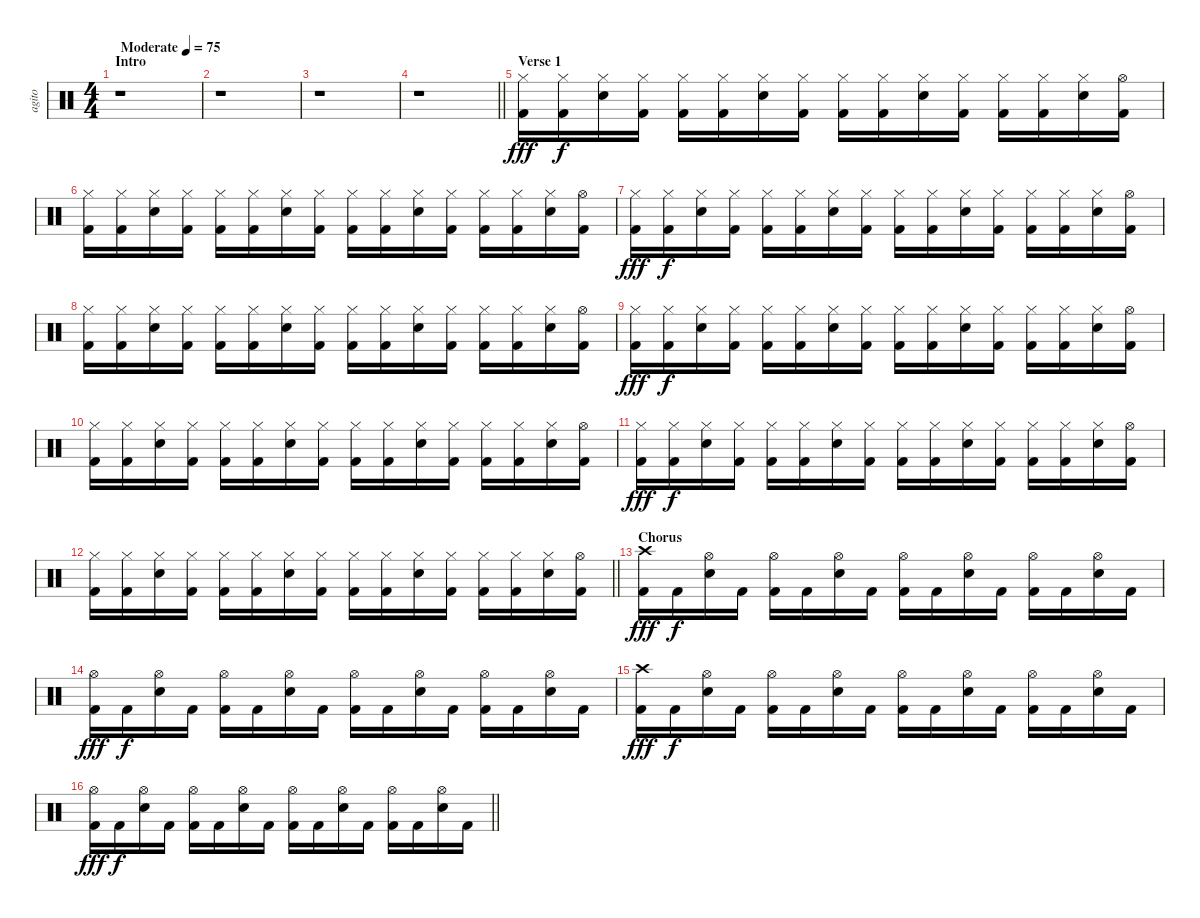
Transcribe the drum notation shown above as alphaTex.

\track ("agito" "agito") {instrument percussion}
\staff {score}
\articulation defaults
\ts (4 4)
\section ("" "Intro")
\tempo (75 "Moderate")
\clef neutral
\ks c
r.1{dy fff} |
r.1 |
r.1 |
\barLineRight lightlight
r.1 |
\section ("" "Verse 1")
("Hi-Hat (closed)" "Kick (hit) 2").16 ("Hi-Hat (closed)" "Kick (hit) 2").16{dy f} ("Hi-Hat (closed)" "Snare (hit) 2").16 ("Hi-Hat (closed)" "Kick (hit) 2").16 ("Hi-Hat (closed)" "Kick (hit) 2").16 ("Hi-Hat (closed)" "Kick (hit) 2").16 ("Hi-Hat (closed)" "Snare (hit) 2").16 ("Hi-Hat (closed)" "Kick (hit) 2").16 ("Hi-Hat (closed)" "Kick (hit) 2").16 ("Hi-Hat (closed)" "Kick (hit) 2").16 ("Hi-Hat (closed)" "Snare (hit) 2").16 ("Hi-Hat (closed)" "Kick (hit) 2").16 ("Hi-Hat (closed)" "Kick (hit) 2").16 ("Hi-Hat (closed)" "Kick (hit) 2").16 ("Hi-Hat (closed)" "Snare (hit) 2").16 ("Hi-Hat (open)" "Kick (hit) 2").16 |
("Hi-Hat (closed)" "Kick (hit) 2").16 ("Hi-Hat (closed)" "Kick (hit) 2").16 ("Hi-Hat (closed)" "Snare (hit) 2").16 ("Hi-Hat (closed)" "Kick (hit) 2").16 ("Hi-Hat (closed)" "Kick (hit) 2").16 ("Hi-Hat (closed)" "Kick (hit) 2").16 ("Hi-Hat (closed)" "Snare (hit) 2").16 ("Hi-Hat (closed)" "Kick (hit) 2").16 ("Hi-Hat (closed)" "Kick (hit) 2").16 ("Hi-Hat (closed)" "Kick (hit) 2").16 ("Hi-Hat (closed)" "Snare (hit) 2").16 ("Hi-Hat (closed)" "Kick (hit) 2").16 ("Hi-Hat (closed)" "Kick (hit) 2").16 ("Hi-Hat (closed)" "Kick (hit) 2").16 ("Hi-Hat (closed)" "Snare (hit) 2").16 ("Hi-Hat (open)" "Kick (hit) 2").16 |
("Hi-Hat (closed)" "Kick (hit) 2").16{dy fff} ("Hi-Hat (closed)" "Kick (hit) 2").16{dy f} ("Hi-Hat (closed)" "Snare (hit) 2").16 ("Hi-Hat (closed)" "Kick (hit) 2").16 ("Hi-Hat (closed)" "Kick (hit) 2").16 ("Hi-Hat (closed)" "Kick (hit) 2").16 ("Hi-Hat (closed)" "Snare (hit) 2").16 ("Hi-Hat (closed)" "Kick (hit) 2").16 ("Hi-Hat (closed)" "Kick (hit) 2").16 ("Hi-Hat (closed)" "Kick (hit) 2").16 ("Hi-Hat (closed)" "Snare (hit) 2").16 ("Hi-Hat (closed)" "Kick (hit) 2").16 ("Hi-Hat (closed)" "Kick (hit) 2").16 ("Hi-Hat (closed)" "Kick (hit) 2").16 ("Hi-Hat (closed)" "Snare (hit) 2").16 ("Hi-Hat (open)" "Kick (hit) 2").16 |
("Hi-Hat (closed)" "Kick (hit) 2").16 ("Hi-Hat (closed)" "Kick (hit) 2").16 ("Hi-Hat (closed)" "Snare (hit) 2").16 ("Hi-Hat (closed)" "Kick (hit) 2").16 ("Hi-Hat (closed)" "Kick (hit) 2").16 ("Hi-Hat (closed)" "Kick (hit) 2").16 ("Hi-Hat (closed)" "Snare (hit) 2").16 ("Hi-Hat (closed)" "Kick (hit) 2").16 ("Hi-Hat (closed)" "Kick (hit) 2").16 ("Hi-Hat (closed)" "Kick (hit) 2").16 ("Hi-Hat (closed)" "Snare (hit) 2").16 ("Hi-Hat (closed)" "Kick (hit) 2").16 ("Hi-Hat (closed)" "Kick (hit) 2").16 ("Hi-Hat (closed)" "Kick (hit) 2").16 ("Hi-Hat (closed)" "Snare (hit) 2").16 ("Hi-Hat (open)" "Kick (hit) 2").16 |
("Hi-Hat (closed)" "Kick (hit) 2").16{dy fff} ("Hi-Hat (closed)" "Kick (hit) 2").16{dy f} ("Hi-Hat (closed)" "Snare (hit) 2").16 ("Hi-Hat (closed)" "Kick (hit) 2").16 ("Hi-Hat (closed)" "Kick (hit) 2").16 ("Hi-Hat (closed)" "Kick (hit) 2").16 ("Hi-Hat (closed)" "Snare (hit) 2").16 ("Hi-Hat (closed)" "Kick (hit) 2").16 ("Hi-Hat (closed)" "Kick (hit) 2").16 ("Hi-Hat (closed)" "Kick (hit) 2").16 ("Hi-Hat (closed)" "Snare (hit) 2").16 ("Hi-Hat (closed)" "Kick (hit) 2").16 ("Hi-Hat (closed)" "Kick (hit) 2").16 ("Hi-Hat (closed)" "Kick (hit) 2").16 ("Hi-Hat (closed)" "Snare (hit) 2").16 ("Hi-Hat (open)" "Kick (hit) 2").16 |
("Hi-Hat (closed)" "Kick (hit) 2").16 ("Hi-Hat (closed)" "Kick (hit) 2").16 ("Hi-Hat (closed)" "Snare (hit) 2").16 ("Hi-Hat (closed)" "Kick (hit) 2").16 ("Hi-Hat (closed)" "Kick (hit) 2").16 ("Hi-Hat (closed)" "Kick (hit) 2").16 ("Hi-Hat (closed)" "Snare (hit) 2").16 ("Hi-Hat (closed)" "Kick (hit) 2").16 ("Hi-Hat (closed)" "Kick (hit) 2").16 ("Hi-Hat (closed)" "Kick (hit) 2").16 ("Hi-Hat (closed)" "Snare (hit) 2").16 ("Hi-Hat (closed)" "Kick (hit) 2").16 ("Hi-Hat (closed)" "Kick (hit) 2").16 ("Hi-Hat (closed)" "Kick (hit) 2").16 ("Hi-Hat (closed)" "Snare (hit) 2").16 ("Hi-Hat (open)" "Kick (hit) 2").16 |
("Hi-Hat (closed)" "Kick (hit) 2").16{dy fff} ("Hi-Hat (closed)" "Kick (hit) 2").16{dy f} ("Hi-Hat (closed)" "Snare (hit) 2").16 ("Hi-Hat (closed)" "Kick (hit) 2").16 ("Hi-Hat (closed)" "Kick (hit) 2").16 ("Hi-Hat (closed)" "Kick (hit) 2").16 ("Hi-Hat (closed)" "Snare (hit) 2").16 ("Hi-Hat (closed)" "Kick (hit) 2").16 ("Hi-Hat (closed)" "Kick (hit) 2").16 ("Hi-Hat (closed)" "Kick (hit) 2").16 ("Hi-Hat (closed)" "Snare (hit) 2").16 ("Hi-Hat (closed)" "Kick (hit) 2").16 ("Hi-Hat (closed)" "Kick (hit) 2").16 ("Hi-Hat (closed)" "Kick (hit) 2").16 ("Hi-Hat (closed)" "Snare (hit) 2").16 ("Hi-Hat (open)" "Kick (hit) 2").16 |
\barLineRight lightlight
("Hi-Hat (closed)" "Kick (hit) 2").16 ("Hi-Hat (closed)" "Kick (hit) 2").16 ("Hi-Hat (closed)" "Snare (hit) 2").16 ("Hi-Hat (closed)" "Kick (hit) 2").16 ("Hi-Hat (closed)" "Kick (hit) 2").16 ("Hi-Hat (closed)" "Kick (hit) 2").16 ("Hi-Hat (closed)" "Snare (hit) 2").16 ("Hi-Hat (closed)" "Kick (hit) 2").16 ("Hi-Hat (closed)" "Kick (hit) 2").16 ("Hi-Hat (closed)" "Kick (hit) 2").16 ("Hi-Hat (closed)" "Snare (hit) 2").16 ("Hi-Hat (closed)" "Kick (hit) 2").16 ("Hi-Hat (closed)" "Kick (hit) 2").16 ("Hi-Hat (closed)" "Kick (hit) 2").16 ("Hi-Hat (closed)" "Snare (hit) 2").16 ("Hi-Hat (open)" "Kick (hit) 2").16 |
\section ("" "Chorus")
("Crash high (hit)" "Kick (hit) 2").16{dy fff} "Kick (hit) 2".16{dy f} ("Hi-Hat (open)" "Snare (hit) 2").16 "Kick (hit) 2".16 ("Hi-Hat (open)" "Kick (hit) 2").16 "Kick (hit) 2".16 ("Hi-Hat (open)" "Snare (hit) 2").16 "Kick (hit) 2".16 ("Hi-Hat (open)" "Kick (hit) 2").16 "Kick (hit) 2".16 ("Hi-Hat (open)" "Snare (hit) 2").16 "Kick (hit) 2".16 ("Hi-Hat (open)" "Kick (hit) 2").16 "Kick (hit) 2".16 ("Hi-Hat (open)" "Snare (hit) 2").16 "Kick (hit) 2".16 |
("Hi-Hat (open)" "Kick (hit) 2").16{dy fff} "Kick (hit) 2".16{dy f} ("Hi-Hat (open)" "Snare (hit) 2").16 "Kick (hit) 2".16 ("Hi-Hat (open)" "Kick (hit) 2").16 "Kick (hit) 2".16 ("Hi-Hat (open)" "Snare (hit) 2").16 "Kick (hit) 2".16 ("Hi-Hat (open)" "Kick (hit) 2").16 "Kick (hit) 2".16 ("Hi-Hat (open)" "Snare (hit) 2").16 "Kick (hit) 2".16 ("Hi-Hat (open)" "Kick (hit) 2").16 "Kick (hit) 2".16 ("Hi-Hat (open)" "Snare (hit) 2").16 "Kick (hit) 2".16 |
("Crash high (hit)" "Kick (hit) 2").16{dy fff} "Kick (hit) 2".16{dy f} ("Hi-Hat (open)" "Snare (hit) 2").16 "Kick (hit) 2".16 ("Hi-Hat (open)" "Kick (hit) 2").16 "Kick (hit) 2".16 ("Hi-Hat (open)" "Snare (hit) 2").16 "Kick (hit) 2".16 ("Hi-Hat (open)" "Kick (hit) 2").16 "Kick (hit) 2".16 ("Hi-Hat (open)" "Snare (hit) 2").16 "Kick (hit) 2".16 ("Hi-Hat (open)" "Kick (hit) 2").16 "Kick (hit) 2".16 ("Hi-Hat (open)" "Snare (hit) 2").16 "Kick (hit) 2".16 |
\barLineRight lightlight
("Hi-Hat (open)" "Kick (hit) 2").16{dy fff} "Kick (hit) 2".16{dy f} ("Hi-Hat (open)" "Snare (hit) 2").16 "Kick (hit) 2".16 ("Hi-Hat (open)" "Kick (hit) 2").16 "Kick (hit) 2".16 ("Hi-Hat (open)" "Snare (hit) 2").16 "Kick (hit) 2".16 ("Hi-Hat (open)" "Kick (hit) 2").16 "Kick (hit) 2".16 ("Hi-Hat (open)" "Snare (hit) 2").16 "Kick (hit) 2".16 ("Hi-Hat (open)" "Kick (hit) 2").16 "Kick (hit) 2".16 ("Hi-Hat (open)" "Snare (hit) 2").16 "Kick (hit) 2".16
